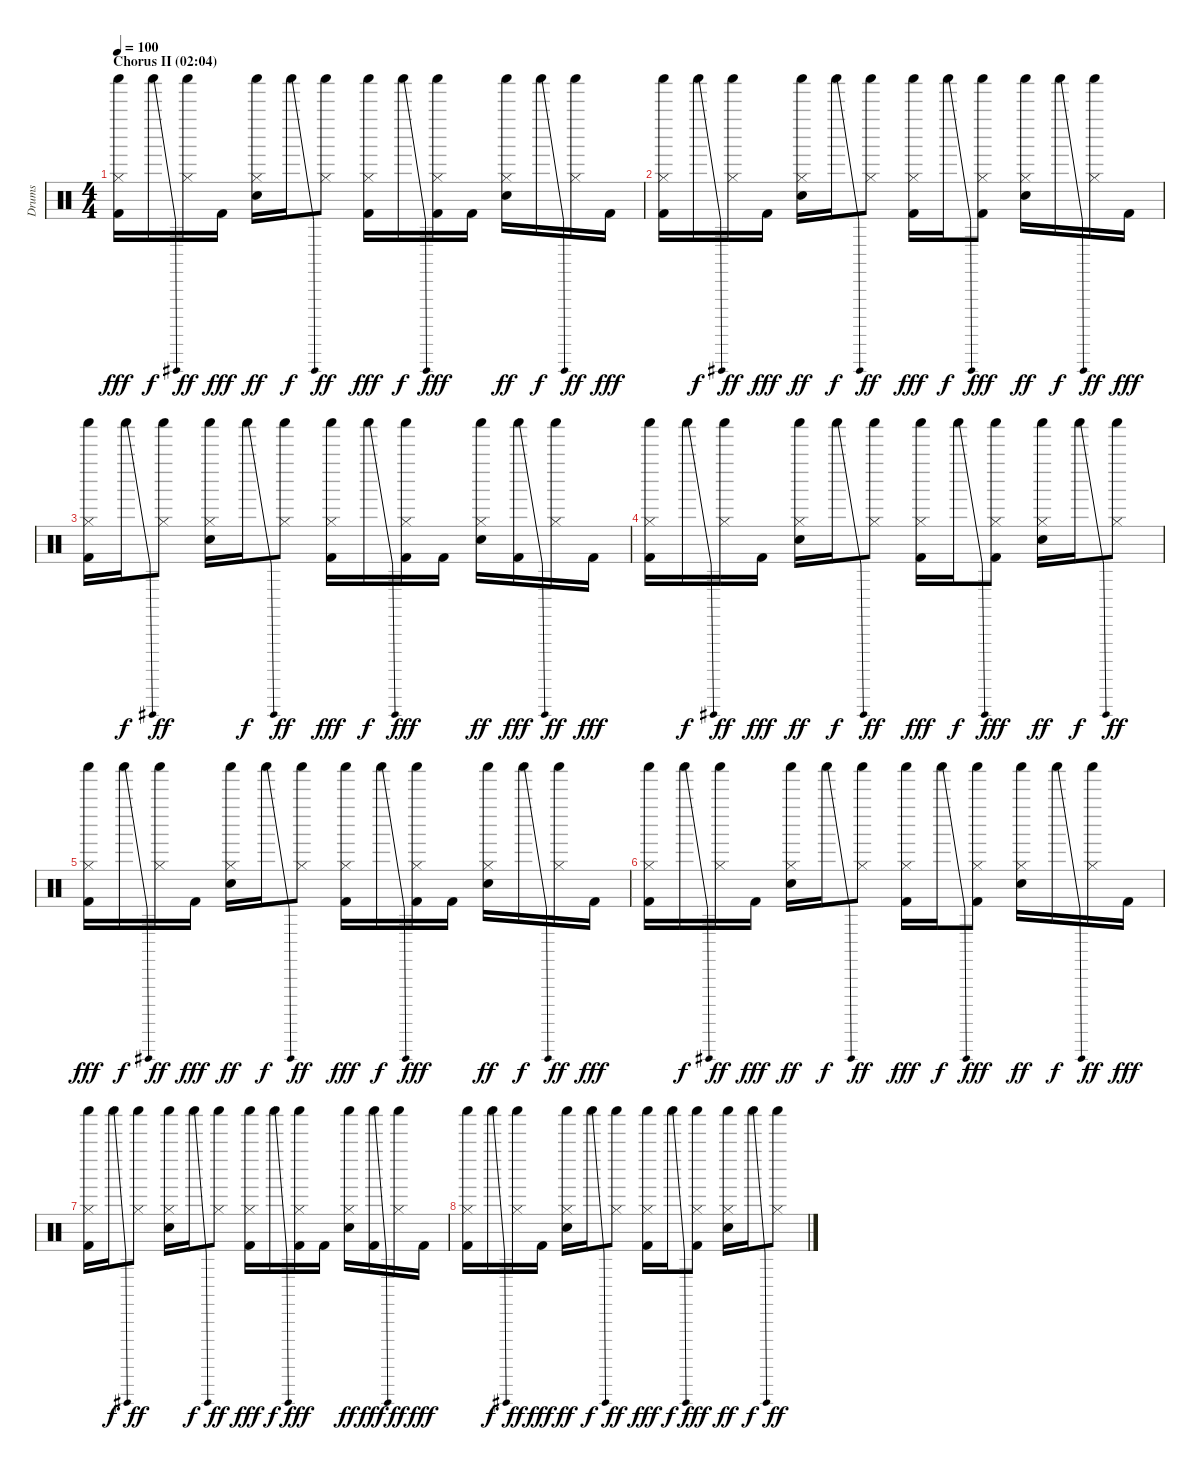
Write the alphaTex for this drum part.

\track ("Drums" "Drums") {instrument percussion}
\staff {score}
\articulation defaults
\ts (4 4)
\section ("" "Chorus II (02:04)")
\tempo 100
\clef neutral
\ks c
("Shaker (hit)" "Hi-Hat (closed)" "Kick (hit) 2").16{dy fff} "Shaker (hit)"{be (bend 0 0 60 12)}.16{dy f} ("Shaker (hit)" "Hi-Hat (closed)").16{dy ff} "Kick (hit) 2".16{dy fff} ("Shaker (hit)" "Hi-Hat (closed)" "Electric Snare (hit)").16{dy ff} "Shaker (hit)"{be (bend 0 0 60 12)}.16{dy f} ("Shaker (hit)" "Hi-Hat (closed)").8{dy ff} ("Shaker (hit)" "Hi-Hat (closed)" "Kick (hit) 2").16{dy fff} "Shaker (hit)"{be (bend 0 0 60 12)}.16{dy f} ("Shaker (hit)" "Hi-Hat (closed)" "Kick (hit) 2").16{dy fff} "Kick (hit) 2".16 ("Shaker (hit)" "Hi-Hat (closed)" "Electric Snare (hit)").16{dy ff} "Shaker (hit)"{be (bend 0 0 60 12)}.16{dy f} ("Shaker (hit)" "Hi-Hat (closed)").16{dy ff} "Kick (hit) 2".16{dy fff} |
("Shaker (hit)" "Hi-Hat (closed)" "Kick (hit) 2").16 "Shaker (hit)"{be (bend 0 0 60 12)}.16{dy f} ("Shaker (hit)" "Hi-Hat (closed)").16{dy ff} "Kick (hit) 2".16{dy fff} ("Shaker (hit)" "Hi-Hat (closed)" "Electric Snare (hit)").16{dy ff} "Shaker (hit)"{be (bend 0 0 60 12)}.16{dy f} ("Shaker (hit)" "Hi-Hat (closed)").8{dy ff} ("Shaker (hit)" "Hi-Hat (closed)" "Kick (hit) 2").16{dy fff} "Shaker (hit)"{be (bend 0 0 60 12)}.16{dy f} ("Shaker (hit)" "Hi-Hat (closed)" "Kick (hit) 2").8{dy fff} ("Shaker (hit)" "Hi-Hat (closed)" "Electric Snare (hit)").16{dy ff} "Shaker (hit)"{be (bend 0 0 60 12)}.16{dy f} ("Shaker (hit)" "Hi-Hat (closed)").16{dy ff} "Kick (hit) 2".16{dy fff} |
("Shaker (hit)" "Hi-Hat (closed)" "Kick (hit) 2").16 "Shaker (hit)"{be (bend 0 0 60 12)}.16{dy f} ("Shaker (hit)" "Hi-Hat (closed)").8{dy ff} ("Shaker (hit)" "Hi-Hat (closed)" "Electric Snare (hit)").16 "Shaker (hit)"{be (bend 0 0 60 12)}.16{dy f} ("Shaker (hit)" "Hi-Hat (closed)").8{dy ff} ("Shaker (hit)" "Hi-Hat (closed)" "Kick (hit) 2").16{dy fff} "Shaker (hit)"{be (bend 0 0 60 12)}.16{dy f} ("Shaker (hit)" "Hi-Hat (closed)" "Kick (hit) 2").16{dy fff} "Kick (hit) 2".16 ("Shaker (hit)" "Hi-Hat (closed)" "Electric Snare (hit)").16{dy ff} ("Shaker (hit)"{be (bend 0 0 60 12)} "Kick (hit) 2").16{dy fff} ("Shaker (hit)" "Hi-Hat (closed)").16{dy ff} "Kick (hit) 2".16{dy fff} |
("Shaker (hit)" "Hi-Hat (closed)" "Kick (hit) 2").16 "Shaker (hit)"{be (bend 0 0 60 12)}.16{dy f} ("Shaker (hit)" "Hi-Hat (closed)").16{dy ff} "Kick (hit) 2".16{dy fff} ("Shaker (hit)" "Hi-Hat (closed)" "Electric Snare (hit)").16{dy ff} "Shaker (hit)"{be (bend 0 0 60 12)}.16{dy f} ("Shaker (hit)" "Hi-Hat (closed)").8{dy ff} ("Shaker (hit)" "Hi-Hat (closed)" "Kick (hit) 2").16{dy fff} "Shaker (hit)"{be (bend 0 0 60 12)}.16{dy f} ("Shaker (hit)" "Hi-Hat (closed)" "Kick (hit) 2").8{dy fff} ("Shaker (hit)" "Hi-Hat (closed)" "Electric Snare (hit)").16{dy ff} "Shaker (hit)"{be (bend 0 0 60 12)}.16{dy f} ("Shaker (hit)" "Hi-Hat (closed)").8{dy ff} |
("Shaker (hit)" "Hi-Hat (closed)" "Kick (hit) 2").16{dy fff} "Shaker (hit)"{be (bend 0 0 60 12)}.16{dy f} ("Shaker (hit)" "Hi-Hat (closed)").16{dy ff} "Kick (hit) 2".16{dy fff} ("Shaker (hit)" "Hi-Hat (closed)" "Electric Snare (hit)").16{dy ff} "Shaker (hit)"{be (bend 0 0 60 12)}.16{dy f} ("Shaker (hit)" "Hi-Hat (closed)").8{dy ff} ("Shaker (hit)" "Hi-Hat (closed)" "Kick (hit) 2").16{dy fff} "Shaker (hit)"{be (bend 0 0 60 12)}.16{dy f} ("Shaker (hit)" "Hi-Hat (closed)" "Kick (hit) 2").16{dy fff} "Kick (hit) 2".16 ("Shaker (hit)" "Hi-Hat (closed)" "Electric Snare (hit)").16{dy ff} "Shaker (hit)"{be (bend 0 0 60 12)}.16{dy f} ("Shaker (hit)" "Hi-Hat (closed)").16{dy ff} "Kick (hit) 2".16{dy fff} |
("Shaker (hit)" "Hi-Hat (closed)" "Kick (hit) 2").16 "Shaker (hit)"{be (bend 0 0 60 12)}.16{dy f} ("Shaker (hit)" "Hi-Hat (closed)").16{dy ff} "Kick (hit) 2".16{dy fff} ("Shaker (hit)" "Hi-Hat (closed)" "Electric Snare (hit)").16{dy ff} "Shaker (hit)"{be (bend 0 0 60 12)}.16{dy f} ("Shaker (hit)" "Hi-Hat (closed)").8{dy ff} ("Shaker (hit)" "Hi-Hat (closed)" "Kick (hit) 2").16{dy fff} "Shaker (hit)"{be (bend 0 0 60 12)}.16{dy f} ("Shaker (hit)" "Hi-Hat (closed)" "Kick (hit) 2").8{dy fff} ("Shaker (hit)" "Hi-Hat (closed)" "Electric Snare (hit)").16{dy ff} "Shaker (hit)"{be (bend 0 0 60 12)}.16{dy f} ("Shaker (hit)" "Hi-Hat (closed)").16{dy ff} "Kick (hit) 2".16{dy fff} |
("Shaker (hit)" "Hi-Hat (closed)" "Kick (hit) 2").16 "Shaker (hit)"{be (bend 0 0 60 12)}.16{dy f} ("Shaker (hit)" "Hi-Hat (closed)").8{dy ff} ("Shaker (hit)" "Hi-Hat (closed)" "Electric Snare (hit)").16 "Shaker (hit)"{be (bend 0 0 60 12)}.16{dy f} ("Shaker (hit)" "Hi-Hat (closed)").8{dy ff} ("Shaker (hit)" "Hi-Hat (closed)" "Kick (hit) 2").16{dy fff} "Shaker (hit)"{be (bend 0 0 60 12)}.16{dy f} ("Shaker (hit)" "Hi-Hat (closed)" "Kick (hit) 2").16{dy fff} "Kick (hit) 2".16 ("Shaker (hit)" "Hi-Hat (closed)" "Electric Snare (hit)").16{dy ff} ("Shaker (hit)"{be (bend 0 0 60 12)} "Kick (hit) 2").16{dy fff} ("Shaker (hit)" "Hi-Hat (closed)").16{dy ff} "Kick (hit) 2".16{dy fff} |
("Shaker (hit)" "Hi-Hat (closed)" "Kick (hit) 2").16 "Shaker (hit)"{be (bend 0 0 60 12)}.16{dy f} ("Shaker (hit)" "Hi-Hat (closed)").16{dy ff} "Kick (hit) 2".16{dy fff} ("Shaker (hit)" "Hi-Hat (closed)" "Electric Snare (hit)").16{dy ff} "Shaker (hit)"{be (bend 0 0 60 12)}.16{dy f} ("Shaker (hit)" "Hi-Hat (closed)").8{dy ff} ("Shaker (hit)" "Hi-Hat (closed)" "Kick (hit) 2").16{dy fff} "Shaker (hit)"{be (bend 0 0 60 12)}.16{dy f} ("Shaker (hit)" "Hi-Hat (closed)" "Kick (hit) 2").8{dy fff} ("Shaker (hit)" "Hi-Hat (closed)" "Electric Snare (hit)").16{dy ff} "Shaker (hit)"{be (bend 0 0 60 12)}.16{dy f} ("Shaker (hit)" "Hi-Hat (closed)").8{dy ff}
